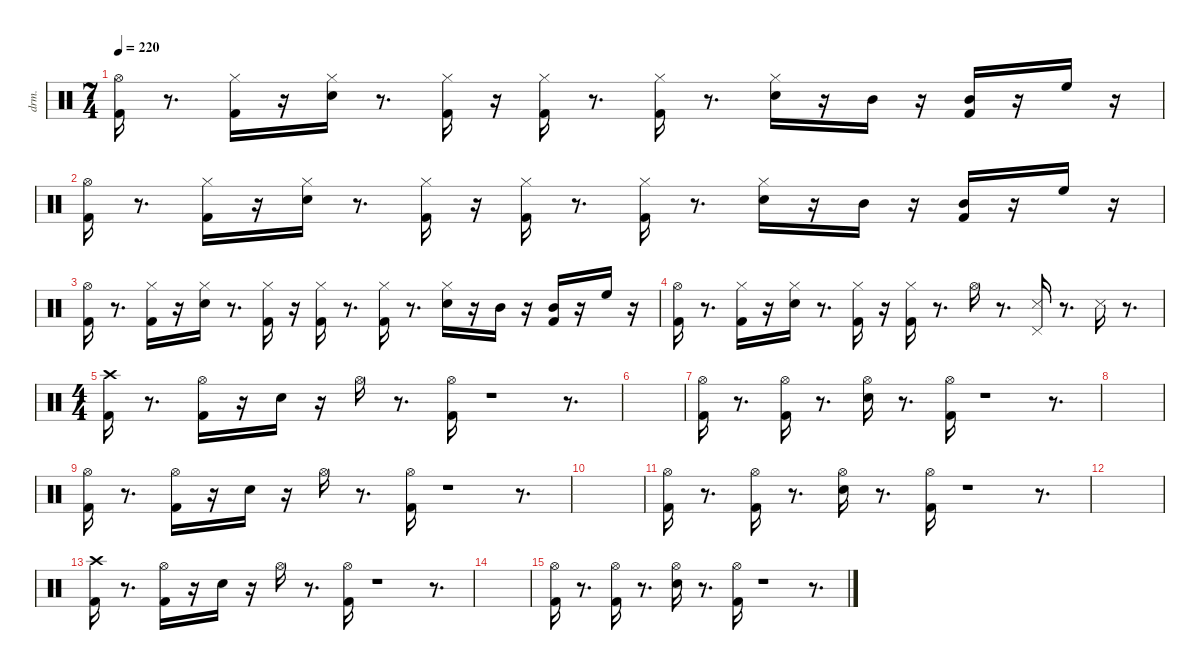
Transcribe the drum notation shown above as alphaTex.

\defaultSystemsLayout 4
\hideDynamics
\bracketExtendMode nobrackets
\otherSystemsTrackNameOrientation horizontal
\track ("EZdrummer 3" "drm.") {mute instrument percussion}
\staff {score}
\articulation defaults
\ts (7 4)
\tempo 220
\clef neutral
\ks c
("Kick (hit) 2" "Hi-Hat (open)"{acc #}).16{dy fff beam Down} r.8{d beam Down} ("Kick (hit) 2" "Hi-Hat (closed)"{acc #}).16{dy f beam Down} r.16{beam Down} ("Snare (hit) 2" "Hi-Hat (closed)"{acc #}).16{dy ff beam Down} r.8{d beam Down} ("Kick (hit) 2" "Hi-Hat (closed)"{acc #}).16{dy f beam Down} r.16{beam Down} ("Kick (hit) 2" "Hi-Hat (closed)"{acc #}).16{dy ff beam Down} r.8{d beam Down} ("Kick (hit) 2" "Hi-Hat (closed)"{acc #}).16{dy f beam Down} r.8{d beam Down} ("Snare (hit) 2" "Hi-Hat (closed)"{acc #}).16{dy fff beam Down} r.16{beam Down} "Mid Tom (hit)".16{dy f beam Down} r.16{beam Down} ("Kick (hit) 2" "Mid Tom (hit)").16{beam Up} r.16{beam Up} "High Floor Tom (hit)".16{beam Down} r.16{beam Down} |
("Kick (hit) 2" "Hi-Hat (open)"{acc #}).16{dy fff beam Down} r.8{d beam Down} ("Kick (hit) 2" "Hi-Hat (closed)"{acc #}).16{dy f beam Down} r.16{beam Down} ("Snare (hit) 2" "Hi-Hat (closed)"{acc #}).16{dy ff beam Down} r.8{d beam Down} ("Kick (hit) 2" "Hi-Hat (closed)"{acc #}).16{dy f beam Down} r.16{beam Down} ("Kick (hit) 2" "Hi-Hat (closed)"{acc #}).16{dy ff beam Down} r.8{d beam Down} ("Kick (hit) 2" "Hi-Hat (closed)"{acc #}).16{dy f beam Down} r.8{d beam Down} ("Snare (hit) 2" "Hi-Hat (closed)"{acc #}).16{dy fff beam Down} r.16{beam Down} "Mid Tom (hit)".16{dy f beam Down} r.16{beam Down} ("Kick (hit) 2" "Mid Tom (hit)").16{beam Up} r.16{beam Up} "High Floor Tom (hit)".16{beam Down} r.16{beam Down} |
("Kick (hit) 2" "Hi-Hat (open)"{acc #}).16{dy fff beam Down} r.8{d beam Down} ("Kick (hit) 2" "Hi-Hat (closed)"{acc #}).16{dy f beam Down} r.16{beam Down} ("Snare (hit) 2" "Hi-Hat (closed)"{acc #}).16{dy ff beam Down} r.8{d beam Down} ("Kick (hit) 2" "Hi-Hat (closed)"{acc #}).16{dy f beam Down} r.16{beam Down} ("Kick (hit) 2" "Hi-Hat (closed)"{acc #}).16{dy ff beam Down} r.8{d beam Down} ("Kick (hit) 2" "Hi-Hat (closed)"{acc #}).16{dy f beam Down} r.8{d beam Down} ("Snare (hit) 2" "Hi-Hat (closed)"{acc #}).16{dy fff beam Down} r.16{beam Down} "Mid Tom (hit)".16{dy f beam Down} r.16{beam Down} ("Kick (hit) 2" "Mid Tom (hit)").16{beam Up} r.16{beam Up} "High Floor Tom (hit)".16{beam Down} r.16{beam Down} |
("Kick (hit) 2" "Hi-Hat (open)"{acc #}).16{dy fff beam Down} r.8{d beam Down} ("Kick (hit) 2" "Hi-Hat (closed)"{acc #}).16{dy f beam Down} r.16{beam Down} ("Snare (hit) 2" "Hi-Hat (closed)"{acc #}).16{beam Down} r.8{d beam Down} ("Kick (hit) 2" "Hi-Hat (closed)"{acc #}).16{beam Down} r.16{beam Down} ("Kick (hit) 2" "Hi-Hat (closed)"{acc #}).16{dy fff beam Down} r.8{d beam Down} "Hi-Hat (open)"{acc #}.16{beam Down} r.8{d beam Down} ("Snare (side stick) 3"{acc #} "Pedal Hi-Hat (hit)"{acc #}).16{beam Up} r.8{d beam Up} "Snare (side stick) 3"{acc #}.16{beam Down} r.8{d beam Down} |
\ts (4 4)
\beaming (8 2 2 2 2)
("Kick (hit) 2" "Crash high (hit)"{acc #}).16{beam Down} r.8{d beam Down} ("Kick (hit) 2" "Hi-Hat (open)"{acc #}).16{dy ff beam Down} r.16{beam Down} "Snare (hit) 2".16{beam Down} r.16{beam Down} "Hi-Hat (open)"{acc #}.16{beam Down} r.8{d beam Down} ("Kick (hit) 2" "Hi-Hat (open)"{acc #}).16{beam Down} r.1{beam Down} r.8{d beam Down} |
|
("Kick (hit) 2" "Hi-Hat (open)"{acc #}).16{beam Down} r.8{d beam Down} ("Kick (hit) 2" "Hi-Hat (open)"{acc #}).16{beam Down} r.8{d beam Down} ("Snare (hit) 2" "Hi-Hat (open)"{acc #}).16{beam Down} r.8{d beam Down} ("Kick (hit) 2" "Hi-Hat (open)"{acc #}).16{dy mf beam Down} r.1{beam Down} r.8{d beam Down} |
|
("Kick (hit) 2" "Hi-Hat (open)"{acc #}).16{dy fff beam Down} r.8{d beam Down} ("Kick (hit) 2" "Hi-Hat (open)"{acc #}).16{dy ff beam Down} r.16{beam Down} "Snare (hit) 2".16{beam Down} r.16{beam Down} "Hi-Hat (open)"{acc #}.16{beam Down} r.8{d beam Down} ("Kick (hit) 2" "Hi-Hat (open)"{acc #}).16{beam Down} r.1{beam Down} r.8{d beam Down} |
|
("Kick (hit) 2" "Hi-Hat (open)"{acc #}).16{beam Down} r.8{d beam Down} ("Kick (hit) 2" "Hi-Hat (open)"{acc #}).16{beam Down} r.8{d beam Down} ("Snare (hit) 2" "Hi-Hat (open)"{acc #}).16{beam Down} r.8{d beam Down} ("Kick (hit) 2" "Hi-Hat (open)"{acc #}).16{dy mf beam Down} r.1{beam Down} r.8{d beam Down} |
|
("Kick (hit) 2" "Crash high (hit)"{acc #}).16{dy fff beam Down} r.8{d beam Down} ("Kick (hit) 2" "Hi-Hat (open)"{acc #}).16{dy ff beam Down} r.16{beam Down} "Snare (hit) 2".16{beam Down} r.16{beam Down} "Hi-Hat (open)"{acc #}.16{beam Down} r.8{d beam Down} ("Kick (hit) 2" "Hi-Hat (open)"{acc #}).16{beam Down} r.1{beam Down} r.8{d beam Down} |
|
("Kick (hit) 2" "Hi-Hat (open)"{acc #}).16{beam Down} r.8{d beam Down} ("Kick (hit) 2" "Hi-Hat (open)"{acc #}).16{beam Down} r.8{d beam Down} ("Snare (hit) 2" "Hi-Hat (open)"{acc #}).16{beam Down} r.8{d beam Down} ("Kick (hit) 2" "Hi-Hat (open)"{acc #}).16{dy mf beam Down} r.1{beam Down} r.8{d beam Down}
